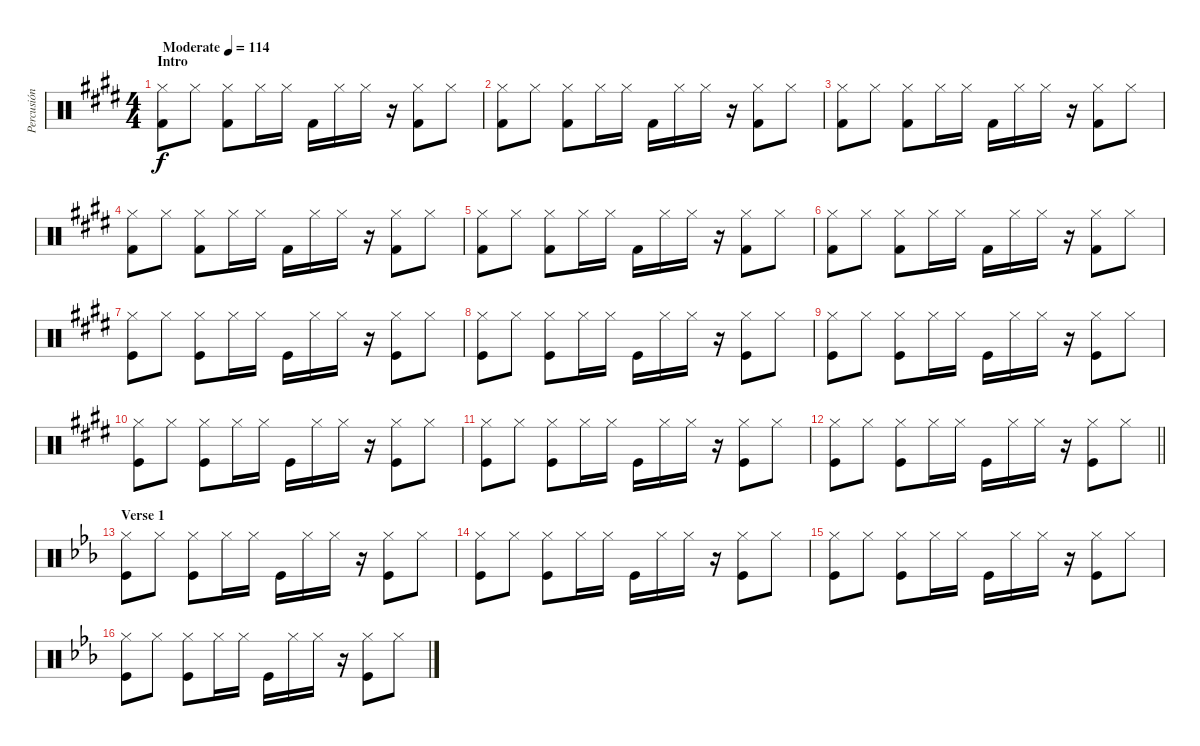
\track ("Percusión" "Percusión") {instrument percussion}
\staff {score}
\articulation defaults
\ts (4 4)
\section ("" "Intro")
\tempo (114 "Moderate")
\clef neutral
\ks e
("Hi-Hat (closed)" "Kick (hit) 2").8{dy f} "Hi-Hat (closed)".8 ("Hi-Hat (closed)" "Kick (hit) 2").8 "Hi-Hat (closed)".16 "Hi-Hat (closed)".16 "Kick (hit) 2".16 "Hi-Hat (closed)".16 "Hi-Hat (closed)".16 r.16 ("Hi-Hat (closed)" "Kick (hit) 2").8 "Hi-Hat (closed)".8 |
\ks c#minor
("Hi-Hat (closed)" "Kick (hit) 2").8 "Hi-Hat (closed)".8 ("Hi-Hat (closed)" "Kick (hit) 2").8 "Hi-Hat (closed)".16 "Hi-Hat (closed)".16 "Kick (hit) 2".16 "Hi-Hat (closed)".16 "Hi-Hat (closed)".16 r.16 ("Hi-Hat (closed)" "Kick (hit) 2").8 "Hi-Hat (closed)".8 |
("Hi-Hat (closed)" "Kick (hit) 2").8 "Hi-Hat (closed)".8 ("Hi-Hat (closed)" "Kick (hit) 2").8 "Hi-Hat (closed)".16 "Hi-Hat (closed)".16 "Kick (hit) 2".16 "Hi-Hat (closed)".16 "Hi-Hat (closed)".16 r.16 ("Hi-Hat (closed)" "Kick (hit) 2").8 "Hi-Hat (closed)".8 |
("Hi-Hat (closed)" "Kick (hit) 2").8 "Hi-Hat (closed)".8 ("Hi-Hat (closed)" "Kick (hit) 2").8 "Hi-Hat (closed)".16 "Hi-Hat (closed)".16 "Kick (hit) 2".16 "Hi-Hat (closed)".16 "Hi-Hat (closed)".16 r.16 ("Hi-Hat (closed)" "Kick (hit) 2").8 "Hi-Hat (closed)".8 |
\ks e
("Hi-Hat (closed)" "Kick (hit) 2").8 "Hi-Hat (closed)".8 ("Hi-Hat (closed)" "Kick (hit) 2").8 "Hi-Hat (closed)".16 "Hi-Hat (closed)".16 "Kick (hit) 2".16 "Hi-Hat (closed)".16 "Hi-Hat (closed)".16 r.16 ("Hi-Hat (closed)" "Kick (hit) 2").8 "Hi-Hat (closed)".8 |
\ks c#minor
("Hi-Hat (closed)" "Kick (hit) 2").8 "Hi-Hat (closed)".8 ("Hi-Hat (closed)" "Kick (hit) 2").8 "Hi-Hat (closed)".16 "Hi-Hat (closed)".16 "Kick (hit) 2".16 "Hi-Hat (closed)".16 "Hi-Hat (closed)".16 r.16 ("Hi-Hat (closed)" "Kick (hit) 2").8 "Hi-Hat (closed)".8 |
("Hi-Hat (closed)" "Kick (hit)").8 "Hi-Hat (closed)".8 ("Hi-Hat (closed)" "Kick (hit)").8 "Hi-Hat (closed)".16 "Hi-Hat (closed)".16 "Kick (hit)".16 "Hi-Hat (closed)".16 "Hi-Hat (closed)".16 r.16 ("Hi-Hat (closed)" "Kick (hit)").8 "Hi-Hat (closed)".8 |
("Hi-Hat (closed)" "Kick (hit)").8 "Hi-Hat (closed)".8 ("Hi-Hat (closed)" "Kick (hit)").8 "Hi-Hat (closed)".16 "Hi-Hat (closed)".16 "Kick (hit)".16 "Hi-Hat (closed)".16 "Hi-Hat (closed)".16 r.16 ("Hi-Hat (closed)" "Kick (hit)").8 "Hi-Hat (closed)".8 |
\ks e
("Hi-Hat (closed)" "Kick (hit)").8 "Hi-Hat (closed)".8 ("Hi-Hat (closed)" "Kick (hit)").8 "Hi-Hat (closed)".16 "Hi-Hat (closed)".16 "Kick (hit)".16 "Hi-Hat (closed)".16 "Hi-Hat (closed)".16 r.16 ("Hi-Hat (closed)" "Kick (hit)").8 "Hi-Hat (closed)".8 |
\ks c#minor
("Hi-Hat (closed)" "Kick (hit)").8 "Hi-Hat (closed)".8 ("Hi-Hat (closed)" "Kick (hit)").8 "Hi-Hat (closed)".16 "Hi-Hat (closed)".16 "Kick (hit)".16 "Hi-Hat (closed)".16 "Hi-Hat (closed)".16 r.16 ("Hi-Hat (closed)" "Kick (hit)").8 "Hi-Hat (closed)".8 |
("Hi-Hat (closed)" "Kick (hit)").8 "Hi-Hat (closed)".8 ("Hi-Hat (closed)" "Kick (hit)").8 "Hi-Hat (closed)".16 "Hi-Hat (closed)".16 "Kick (hit)".16 "Hi-Hat (closed)".16 "Hi-Hat (closed)".16 r.16 ("Hi-Hat (closed)" "Kick (hit)").8 "Hi-Hat (closed)".8 |
\barLineRight lightlight
("Hi-Hat (closed)" "Kick (hit)").8 "Hi-Hat (closed)".8 ("Hi-Hat (closed)" "Kick (hit)").8 "Hi-Hat (closed)".16 "Hi-Hat (closed)".16 "Kick (hit)".16 "Hi-Hat (closed)".16 "Hi-Hat (closed)".16 r.16 ("Hi-Hat (closed)" "Kick (hit)").8 "Hi-Hat (closed)".8 |
\section ("" "Verse 1")
\ks eb
("Hi-Hat (closed)" "Kick (hit)").8 "Hi-Hat (closed)".8 ("Hi-Hat (closed)" "Kick (hit)").8 "Hi-Hat (closed)".16 "Hi-Hat (closed)".16 "Kick (hit)".16 "Hi-Hat (closed)".16 "Hi-Hat (closed)".16 r.16 ("Hi-Hat (closed)" "Kick (hit)").8 "Hi-Hat (closed)".8 |
("Hi-Hat (closed)" "Kick (hit)").8 "Hi-Hat (closed)".8 ("Hi-Hat (closed)" "Kick (hit)").8 "Hi-Hat (closed)".16 "Hi-Hat (closed)".16 "Kick (hit)".16 "Hi-Hat (closed)".16 "Hi-Hat (closed)".16 r.16 ("Hi-Hat (closed)" "Kick (hit)").8 "Hi-Hat (closed)".8 |
("Hi-Hat (closed)" "Kick (hit)").8 "Hi-Hat (closed)".8 ("Hi-Hat (closed)" "Kick (hit)").8 "Hi-Hat (closed)".16 "Hi-Hat (closed)".16 "Kick (hit)".16 "Hi-Hat (closed)".16 "Hi-Hat (closed)".16 r.16 ("Hi-Hat (closed)" "Kick (hit)").8 "Hi-Hat (closed)".8 |
("Hi-Hat (closed)" "Kick (hit)").8 "Hi-Hat (closed)".8 ("Hi-Hat (closed)" "Kick (hit)").8 "Hi-Hat (closed)".16 "Hi-Hat (closed)".16 "Kick (hit)".16 "Hi-Hat (closed)".16 "Hi-Hat (closed)".16 r.16 ("Hi-Hat (closed)" "Kick (hit)").8 "Hi-Hat (closed)".8
